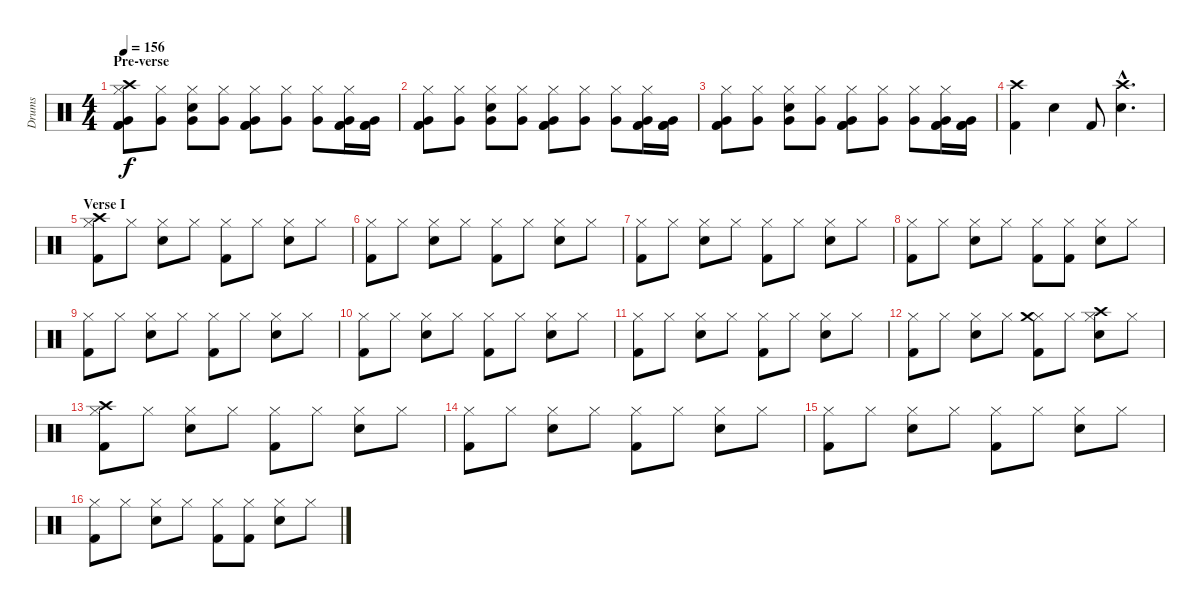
\track ("Drums" "Drums") {instrument percussion}
\staff {score}
\articulation defaults
\ts (4 4)
\section ("" "Pre-verse")
\tempo 156
\clef neutral
\ks c
("Very Low Tom (hit)" "Hi-Hat (closed)" "Kick (hit) 2" "Kick (hit) 2" "Crash high (hit)").8{dy f} ("Very Low Tom (hit)" "Hi-Hat (closed)").8 ("Very Low Tom (hit)" "Hi-Hat (closed)" "Electric Snare (hit)").8 ("Very Low Tom (hit)" "Hi-Hat (closed)").8 ("Very Low Tom (hit)" "Hi-Hat (closed)" "Kick (hit) 2" "Kick (hit) 2").8 ("Very Low Tom (hit)" "Hi-Hat (closed)").8 ("Very Low Tom (hit)" "Hi-Hat (closed)").8 ("Very Low Tom (hit)" "Hi-Hat (closed)" "Kick (hit) 2" "Kick (hit) 2").16 ("Very Low Tom (hit)" "Kick (hit) 2" "Kick (hit) 2").16 |
("Very Low Tom (hit)" "Hi-Hat (closed)" "Kick (hit) 2" "Kick (hit) 2").8 ("Very Low Tom (hit)" "Hi-Hat (closed)").8 ("Very Low Tom (hit)" "Hi-Hat (closed)" "Electric Snare (hit)").8 ("Very Low Tom (hit)" "Hi-Hat (closed)").8 ("Very Low Tom (hit)" "Hi-Hat (closed)" "Kick (hit) 2" "Kick (hit) 2").8 ("Very Low Tom (hit)" "Hi-Hat (closed)").8 ("Very Low Tom (hit)" "Hi-Hat (closed)").8 ("Very Low Tom (hit)" "Hi-Hat (closed)" "Kick (hit) 2" "Kick (hit) 2").16 ("Very Low Tom (hit)" "Kick (hit) 2" "Kick (hit) 2").16 |
("Very Low Tom (hit)" "Hi-Hat (closed)" "Kick (hit) 2" "Kick (hit) 2").8 ("Very Low Tom (hit)" "Hi-Hat (closed)").8 ("Very Low Tom (hit)" "Hi-Hat (closed)" "Electric Snare (hit)").8 ("Very Low Tom (hit)" "Hi-Hat (closed)").8 ("Very Low Tom (hit)" "Hi-Hat (closed)" "Kick (hit) 2" "Kick (hit) 2").8 ("Very Low Tom (hit)" "Hi-Hat (closed)").8 ("Very Low Tom (hit)" "Hi-Hat (closed)").8 ("Very Low Tom (hit)" "Hi-Hat (closed)" "Kick (hit) 2" "Kick (hit) 2").16 ("Very Low Tom (hit)" "Kick (hit) 2" "Kick (hit) 2").16 |
("Kick (hit) 2" "Crash high (hit)").4 "Electric Snare (hit)".4 "Kick (hit) 2".8 ("Electric Snare (hit)"{hac} "Crash high (hit)"{hac}).4{d} |
\section ("" "Verse I")
("Hi-Hat (closed)" "Kick (hit) 2" "Crash high (hit)").8 "Hi-Hat (closed)".8 ("Hi-Hat (closed)" "Electric Snare (hit)").8 "Hi-Hat (closed)".8 ("Hi-Hat (closed)" "Kick (hit) 2").8 "Hi-Hat (closed)".8 ("Hi-Hat (closed)" "Electric Snare (hit)").8 "Hi-Hat (closed)".8 |
("Hi-Hat (closed)" "Kick (hit) 2").8 "Hi-Hat (closed)".8 ("Hi-Hat (closed)" "Electric Snare (hit)").8 "Hi-Hat (closed)".8 ("Hi-Hat (closed)" "Kick (hit) 2").8 "Hi-Hat (closed)".8 ("Hi-Hat (closed)" "Electric Snare (hit)").8 "Hi-Hat (closed)".8 |
("Hi-Hat (closed)" "Kick (hit) 2").8 "Hi-Hat (closed)".8 ("Hi-Hat (closed)" "Electric Snare (hit)").8 "Hi-Hat (closed)".8 ("Hi-Hat (closed)" "Kick (hit) 2").8 "Hi-Hat (closed)".8 ("Hi-Hat (closed)" "Electric Snare (hit)").8 "Hi-Hat (closed)".8 |
("Hi-Hat (closed)" "Kick (hit) 2").8 "Hi-Hat (closed)".8 ("Hi-Hat (closed)" "Electric Snare (hit)").8 "Hi-Hat (closed)".8 ("Hi-Hat (closed)" "Kick (hit) 2").8 ("Hi-Hat (closed)" "Kick (hit) 2").8 ("Hi-Hat (closed)" "Electric Snare (hit)").8 "Hi-Hat (closed)".8 |
("Hi-Hat (closed)" "Kick (hit) 2").8 "Hi-Hat (closed)".8 ("Hi-Hat (closed)" "Electric Snare (hit)").8 "Hi-Hat (closed)".8 ("Hi-Hat (closed)" "Kick (hit) 2").8 "Hi-Hat (closed)".8 ("Hi-Hat (closed)" "Electric Snare (hit)").8 "Hi-Hat (closed)".8 |
("Hi-Hat (closed)" "Kick (hit) 2").8 "Hi-Hat (closed)".8 ("Hi-Hat (closed)" "Electric Snare (hit)").8 "Hi-Hat (closed)".8 ("Hi-Hat (closed)" "Kick (hit) 2").8 "Hi-Hat (closed)".8 ("Hi-Hat (closed)" "Electric Snare (hit)").8 "Hi-Hat (closed)".8 |
("Hi-Hat (closed)" "Kick (hit) 2").8 "Hi-Hat (closed)".8 ("Hi-Hat (closed)" "Electric Snare (hit)").8 "Hi-Hat (closed)".8 ("Hi-Hat (closed)" "Kick (hit) 2").8 "Hi-Hat (closed)".8 ("Hi-Hat (closed)" "Electric Snare (hit)").8 "Hi-Hat (closed)".8 |
("Hi-Hat (closed)" "Kick (hit) 2").8 "Hi-Hat (closed)".8 ("Hi-Hat (closed)" "Electric Snare (hit)").8 "Hi-Hat (closed)".8 ("Hi-Hat (closed)" "Kick (hit) 2" "Crash medium (hit)").8 "Hi-Hat (closed)".8 ("Hi-Hat (closed)" "Electric Snare (hit)" "Crash high (hit)").8 "Hi-Hat (closed)".8 |
("Hi-Hat (closed)" "Kick (hit) 2" "Crash high (hit)").8 "Hi-Hat (closed)".8 ("Hi-Hat (closed)" "Electric Snare (hit)").8 "Hi-Hat (closed)".8 ("Hi-Hat (closed)" "Kick (hit) 2").8 "Hi-Hat (closed)".8 ("Hi-Hat (closed)" "Electric Snare (hit)").8 "Hi-Hat (closed)".8 |
("Hi-Hat (closed)" "Kick (hit) 2").8 "Hi-Hat (closed)".8 ("Hi-Hat (closed)" "Electric Snare (hit)").8 "Hi-Hat (closed)".8 ("Hi-Hat (closed)" "Kick (hit) 2").8 "Hi-Hat (closed)".8 ("Hi-Hat (closed)" "Electric Snare (hit)").8 "Hi-Hat (closed)".8 |
("Hi-Hat (closed)" "Kick (hit) 2").8 "Hi-Hat (closed)".8 ("Hi-Hat (closed)" "Electric Snare (hit)").8 "Hi-Hat (closed)".8 ("Hi-Hat (closed)" "Kick (hit) 2").8 "Hi-Hat (closed)".8 ("Hi-Hat (closed)" "Electric Snare (hit)").8 "Hi-Hat (closed)".8 |
("Hi-Hat (closed)" "Kick (hit) 2").8 "Hi-Hat (closed)".8 ("Hi-Hat (closed)" "Electric Snare (hit)").8 "Hi-Hat (closed)".8 ("Hi-Hat (closed)" "Kick (hit) 2").8 ("Hi-Hat (closed)" "Kick (hit) 2").8 ("Hi-Hat (closed)" "Electric Snare (hit)").8 "Hi-Hat (closed)".8
